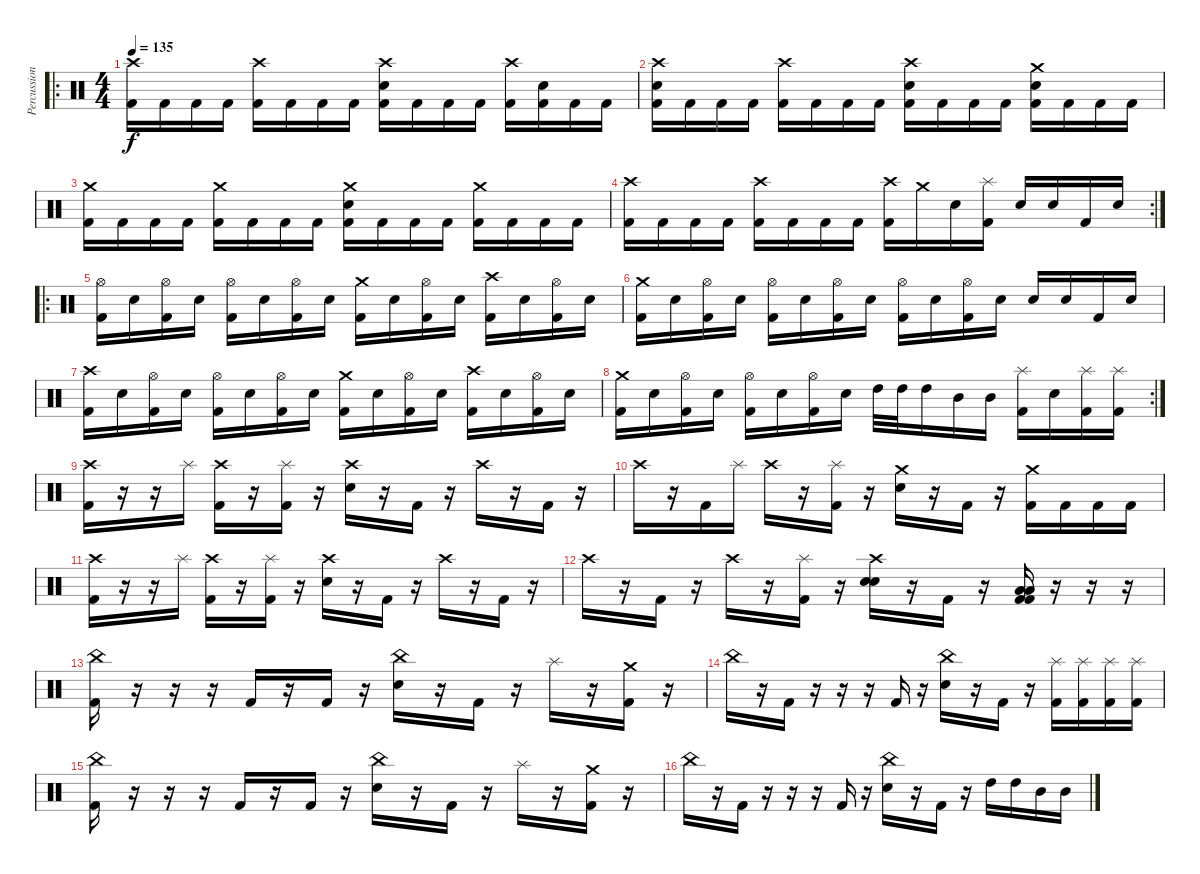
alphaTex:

\track ("Percussion" "Percussion") {instrument percussion}
\staff {score}
\articulation defaults
\ro
\ts (4 4)
\tempo 135
\clef neutral
\ks c
("Crash high (hit)" "Kick (hit) 2").16{dy f} "Kick (hit) 2".16 "Kick (hit) 2".16 "Kick (hit) 2".16 ("Crash high (hit)" "Kick (hit) 2").16 "Kick (hit) 2".16 "Kick (hit) 2".16 "Kick (hit) 2".16 ("Crash high (hit)" "Electric Snare (hit)" "Kick (hit) 2").16 "Kick (hit) 2".16 "Kick (hit) 2".16 "Kick (hit) 2".16 ("Crash high (hit)" "Kick (hit) 2").16 ("Electric Snare (hit)" "Kick (hit) 2").16 "Kick (hit) 2".16 "Kick (hit) 2".16 |
("Crash high (hit)" "Electric Snare (hit)" "Kick (hit) 2").16 "Kick (hit) 2".16 "Kick (hit) 2".16 "Kick (hit) 2".16 ("Crash high (hit)" "Kick (hit) 2").16 "Kick (hit) 2".16 "Kick (hit) 2".16 "Kick (hit) 2".16 ("Crash high (hit)" "Electric Snare (hit)" "Kick (hit) 2").16 "Kick (hit) 2".16 "Kick (hit) 2".16 "Kick (hit) 2".16 ("Crash medium (hit)" "Electric Snare (hit)" "Kick (hit) 2").16 "Kick (hit) 2".16 "Kick (hit) 2".16 "Kick (hit) 2".16 |
("Crash medium (hit)" "Kick (hit) 2").16 "Kick (hit) 2".16 "Kick (hit) 2".16 "Kick (hit) 2".16 ("Crash medium (hit)" "Kick (hit) 2").16 "Kick (hit) 2".16 "Kick (hit) 2".16 "Kick (hit) 2".16 ("Crash medium (hit)" "Electric Snare (hit)" "Kick (hit) 2").16 "Kick (hit) 2".16 "Kick (hit) 2".16 "Kick (hit) 2".16 ("Crash medium (hit)" "Kick (hit) 2").16 "Kick (hit) 2".16 "Kick (hit) 2".16 "Kick (hit) 2".16 |
\rc 2
("Crash high (hit)" "Kick (hit) 2").16 "Kick (hit) 2".16 "Kick (hit) 2".16 "Kick (hit) 2".16 ("Crash high (hit)" "Kick (hit) 2").16 "Kick (hit) 2".16 "Kick (hit) 2".16 "Kick (hit) 2".16 ("Crash high (hit)" "Kick (hit) 2").16 "Crash medium (hit)".16 "Electric Snare (hit)".16 ("Splash (hit)" "Kick (hit) 2").16 "Electric Snare (hit)".16 "Electric Snare (hit)".16 "Kick (hit) 2".16 "Electric Snare (hit)".16 |
\ro
("Hi-Hat (open)" "Kick (hit) 2").16 "Electric Snare (hit)".16 ("Hi-Hat (open)" "Kick (hit) 2").16 "Electric Snare (hit)".16 ("Hi-Hat (open)" "Kick (hit) 2").16 "Electric Snare (hit)".16 ("Hi-Hat (open)" "Kick (hit) 2").16 "Electric Snare (hit)".16 ("Crash medium (hit)" "Kick (hit) 2").16 "Electric Snare (hit)".16 ("Hi-Hat (open)" "Kick (hit) 2").16 "Electric Snare (hit)".16 ("Crash high (hit)" "Kick (hit) 2").16 "Electric Snare (hit)".16 ("Hi-Hat (open)" "Kick (hit) 2").16 "Electric Snare (hit)".16 |
("Crash medium (hit)" "Kick (hit) 2").16 "Electric Snare (hit)".16 ("Hi-Hat (open)" "Kick (hit) 2").16 "Electric Snare (hit)".16 ("Hi-Hat (open)" "Kick (hit) 2").16 "Electric Snare (hit)".16 ("Hi-Hat (open)" "Kick (hit) 2").16 "Electric Snare (hit)".16 ("Hi-Hat (open)" "Kick (hit) 2").16 "Electric Snare (hit)".16 ("Hi-Hat (open)" "Kick (hit) 2").16 "Electric Snare (hit)".16 "Electric Snare (hit)".16 "Electric Snare (hit)".16 "Kick (hit) 2".16 "Electric Snare (hit)".16 |
("Crash high (hit)" "Kick (hit) 2").16 "Electric Snare (hit)".16 ("Hi-Hat (open)" "Kick (hit) 2").16 "Electric Snare (hit)".16 ("Hi-Hat (open)" "Kick (hit) 2").16 "Electric Snare (hit)".16 ("Hi-Hat (open)" "Kick (hit) 2").16 "Electric Snare (hit)".16 ("Crash medium (hit)" "Kick (hit) 2").16 "Electric Snare (hit)".16 ("Hi-Hat (open)" "Kick (hit) 2").16 "Electric Snare (hit)".16 ("Crash high (hit)" "Kick (hit) 2").16 "Electric Snare (hit)".16 ("Hi-Hat (open)" "Kick (hit) 2").16 "Electric Snare (hit)".16 |
\rc 2
("Crash medium (hit)" "Kick (hit) 2").16 "Electric Snare (hit)".16 ("Hi-Hat (open)" "Kick (hit) 2").16 "Electric Snare (hit)".16 ("Hi-Hat (open)" "Kick (hit) 2").16 "Electric Snare (hit)".16 ("Hi-Hat (open)" "Kick (hit) 2").16 "Electric Snare (hit)".16 "High Tom (hit)".32 "High Tom (hit)".32 "High Tom (hit)".16 "Mid Tom (hit)".16 "Mid Tom (hit)".16 ("Splash (hit)" "Kick (hit) 2").16 "Electric Snare (hit)".16 ("Splash (hit)" "Kick (hit) 2").16 ("Splash (hit)" "Kick (hit) 2").16 |
("Crash high (hit)" "Kick (hit) 2").16 r.16 r.16 "Splash (hit)".16 ("Crash high (hit)" "Kick (hit) 2").16 r.16 ("Splash (hit)" "Kick (hit) 2").16 r.16 ("Crash high (hit)" "Electric Snare (hit)").16 r.16 "Kick (hit) 2".16 r.16 "Crash high (hit)".16 r.16 "Kick (hit) 2".16 r.16 |
"Crash high (hit)".16 r.16 "Kick (hit) 2".16 "Splash (hit)".16 "Crash high (hit)".16 r.16 ("Splash (hit)" "Kick (hit) 2").16 r.16 ("Crash medium (hit)" "Electric Snare (hit)").16 r.16 "Kick (hit) 2".16 r.16 ("Crash medium (hit)" "Kick (hit) 2").16 "Kick (hit) 2".16 "Kick (hit) 2".16 "Kick (hit) 2".16 |
("Crash high (hit)" "Kick (hit) 2").16 r.16 r.16 "Splash (hit)".16 ("Crash high (hit)" "Kick (hit) 2").16 r.16 ("Splash (hit)" "Kick (hit) 2").16 r.16 ("Crash high (hit)" "Electric Snare (hit)").16 r.16 "Kick (hit) 2".16 r.16 "Crash high (hit)".16 r.16 "Kick (hit) 2".16 r.16 |
"Crash high (hit)".16 r.16 "Kick (hit) 2".16 r.16 "Crash high (hit)".16 r.16 ("Splash (hit)" "Kick (hit) 2").16 r.16 ("Crash high (hit)" "Electric Snare (hit)" "Electric Snare (hit)").16 r.16 "Kick (hit) 2".16 r.16 ("Low Tom (hit)" "Low Floor Tom (hit)" "Kick (hit) 2" "Kick (hit) 2").16 r.16 r.16 r.16 |
("China (hit)" "Kick (hit) 2").16 r.16 r.16 r.16 "Kick (hit) 2".16 r.16 "Kick (hit) 2".16 r.16 ("China (hit)" "Electric Snare (hit)").16 r.16 "Kick (hit) 2".16 r.16 "Splash (hit)".16 r.16 ("Crash medium (hit)" "Kick (hit) 2").16 r.16 |
"China (hit)".16 r.16 "Kick (hit) 2".16 r.16 r.16 r.16 "Kick (hit) 2".16 r.16 ("China (hit)" "Electric Snare (hit)").16 r.16 "Kick (hit) 2".16 r.16 ("Splash (hit)" "Kick (hit) 2").16 ("Splash (hit)" "Kick (hit) 2").16 ("Splash (hit)" "Kick (hit) 2").16 ("Splash (hit)" "Kick (hit) 2").16 |
("China (hit)" "Kick (hit) 2").16 r.16 r.16 r.16 "Kick (hit) 2".16 r.16 "Kick (hit) 2".16 r.16 ("China (hit)" "Electric Snare (hit)").16 r.16 "Kick (hit) 2".16 r.16 "Splash (hit)".16 r.16 ("Crash medium (hit)" "Kick (hit) 2").16 r.16 |
"China (hit)".16 r.16 "Kick (hit) 2".16 r.16 r.16 r.16 "Kick (hit) 2".16 r.16 ("China (hit)" "Electric Snare (hit)").16 r.16 "Kick (hit) 2".16 r.16 "High Tom (hit)".16 "High Tom (hit)".16 "Mid Tom (hit)".16 "Mid Tom (hit)".16
